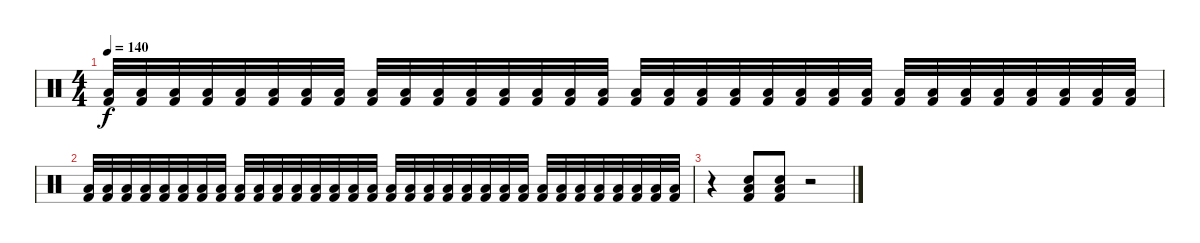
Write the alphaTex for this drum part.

\track "" {instrument percussion}
\staff {score}
\articulation defaults
\ts (4 4)
\tempo 140
\clef neutral
\ks c
("Kick (hit) 2" "Low Tom (hit)").32{dy f} ("Kick (hit) 2" "Low Tom (hit)").32 ("Kick (hit) 2" "Low Tom (hit)").32 ("Kick (hit) 2" "Low Tom (hit)").32 ("Kick (hit) 2" "Low Tom (hit)").32 ("Kick (hit) 2" "Low Tom (hit)").32 ("Kick (hit) 2" "Low Tom (hit)").32 ("Kick (hit) 2" "Low Tom (hit)").32 ("Kick (hit) 2" "Low Tom (hit)").32 ("Kick (hit) 2" "Low Tom (hit)").32 ("Kick (hit) 2" "Low Tom (hit)").32 ("Kick (hit) 2" "Low Tom (hit)").32 ("Kick (hit) 2" "Low Tom (hit)").32 ("Kick (hit) 2" "Low Tom (hit)").32 ("Kick (hit) 2" "Low Tom (hit)").32 ("Kick (hit) 2" "Low Tom (hit)").32 ("Kick (hit) 2" "Low Tom (hit)").32 ("Kick (hit) 2" "Low Tom (hit)").32 ("Kick (hit) 2" "Low Tom (hit)").32 ("Kick (hit) 2" "Low Tom (hit)").32 ("Kick (hit) 2" "Low Tom (hit)").32 ("Kick (hit) 2" "Low Tom (hit)").32 ("Kick (hit) 2" "Low Tom (hit)").32 ("Kick (hit) 2" "Low Tom (hit)").32 ("Kick (hit) 2" "Low Tom (hit)").32 ("Kick (hit) 2" "Low Tom (hit)").32 ("Kick (hit) 2" "Low Tom (hit)").32 ("Kick (hit) 2" "Low Tom (hit)").32 ("Kick (hit) 2" "Low Tom (hit)").32 ("Kick (hit) 2" "Low Tom (hit)").32 ("Kick (hit) 2" "Low Tom (hit)").32 ("Kick (hit) 2" "Low Tom (hit)").32 |
("Kick (hit) 2" "Low Tom (hit)").32 ("Kick (hit) 2" "Low Tom (hit)").32 ("Kick (hit) 2" "Low Tom (hit)").32 ("Kick (hit) 2" "Low Tom (hit)").32 ("Kick (hit) 2" "Low Tom (hit)").32 ("Kick (hit) 2" "Low Tom (hit)").32 ("Kick (hit) 2" "Low Tom (hit)").32 ("Kick (hit) 2" "Low Tom (hit)").32 ("Kick (hit) 2" "Low Tom (hit)").32 ("Kick (hit) 2" "Low Tom (hit)").32 ("Kick (hit) 2" "Low Tom (hit)").32 ("Kick (hit) 2" "Low Tom (hit)").32 ("Kick (hit) 2" "Low Tom (hit)").32 ("Kick (hit) 2" "Low Tom (hit)").32 ("Kick (hit) 2" "Low Tom (hit)").32 ("Kick (hit) 2" "Low Tom (hit)").32 ("Kick (hit) 2" "Low Tom (hit)").32 ("Kick (hit) 2" "Low Tom (hit)").32 ("Kick (hit) 2" "Low Tom (hit)").32 ("Kick (hit) 2" "Low Tom (hit)").32 ("Kick (hit) 2" "Low Tom (hit)").32 ("Kick (hit) 2" "Low Tom (hit)").32 ("Kick (hit) 2" "Low Tom (hit)").32 ("Kick (hit) 2" "Low Tom (hit)").32 ("Kick (hit) 2" "Low Tom (hit)").32 ("Kick (hit) 2" "Low Tom (hit)").32 ("Kick (hit) 2" "Low Tom (hit)").32 ("Kick (hit) 2" "Low Tom (hit)").32 ("Kick (hit) 2" "Low Tom (hit)").32 ("Kick (hit) 2" "Low Tom (hit)").32 ("Kick (hit) 2" "Low Tom (hit)").32 ("Kick (hit) 2" "Low Tom (hit)").32 |
r.4 ("Kick (hit) 2" "Low Tom (hit)" "Snare (hit) 2").8 ("Kick (hit) 2" "Low Tom (hit)" "Snare (hit) 2").8 r.2
